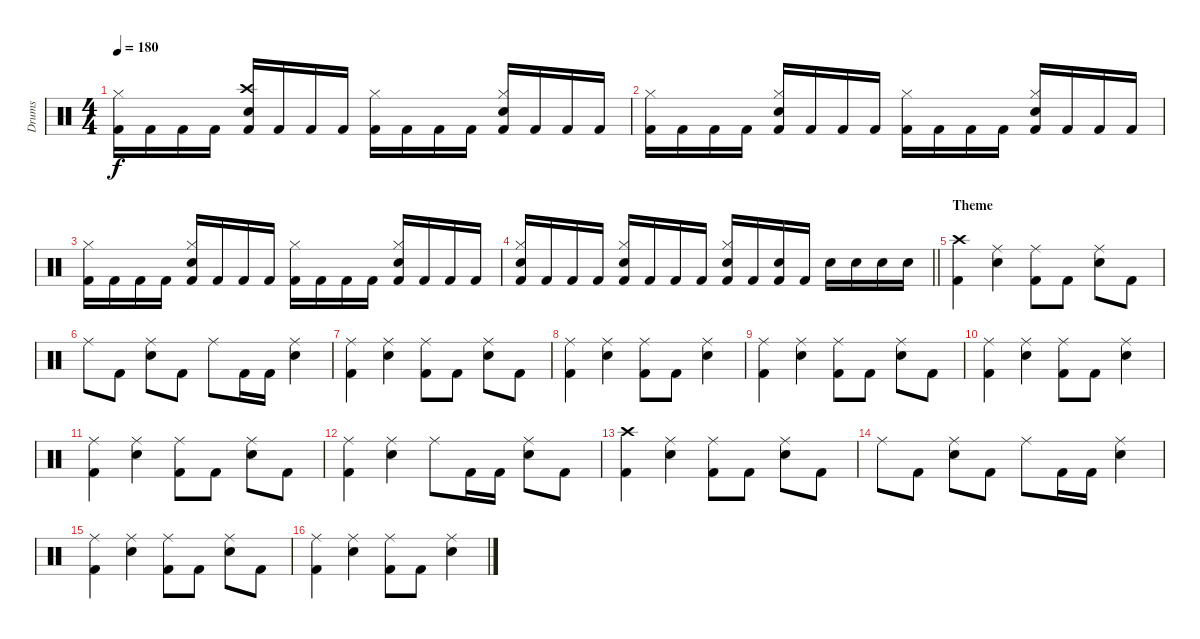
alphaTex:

\track ("Drums " "Drums ") {instrument percussion}
\staff {score}
\articulation defaults
\ts (4 4)
\tempo 180
\clef neutral
\ks c
("Kick (hit) 2" "Hi-Hat (closed)").16{dy f} "Kick (hit) 2".16 "Kick (hit) 2".16 "Kick (hit) 2".16 ("Kick (hit) 2" "Crash high (hit)" "Electric Snare (hit)").16 "Kick (hit) 2".16 "Kick (hit) 2".16 "Kick (hit) 2".16 ("Kick (hit) 2" "Hi-Hat (closed)").16 "Kick (hit) 2".16 "Kick (hit) 2".16 "Kick (hit) 2".16 ("Kick (hit) 2" "Hi-Hat (closed)" "Electric Snare (hit)").16 "Kick (hit) 2".16 "Kick (hit) 2".16 "Kick (hit) 2".16 |
("Kick (hit) 2" "Hi-Hat (closed)").16 "Kick (hit) 2".16 "Kick (hit) 2".16 "Kick (hit) 2".16 ("Kick (hit) 2" "Hi-Hat (closed)" "Electric Snare (hit)").16 "Kick (hit) 2".16 "Kick (hit) 2".16 "Kick (hit) 2".16 ("Kick (hit) 2" "Hi-Hat (closed)").16 "Kick (hit) 2".16 "Kick (hit) 2".16 "Kick (hit) 2".16 ("Kick (hit) 2" "Hi-Hat (closed)" "Electric Snare (hit)").16 "Kick (hit) 2".16 "Kick (hit) 2".16 "Kick (hit) 2".16 |
("Kick (hit) 2" "Hi-Hat (closed)").16 "Kick (hit) 2".16 "Kick (hit) 2".16 "Kick (hit) 2".16 ("Kick (hit) 2" "Hi-Hat (closed)" "Electric Snare (hit)").16 "Kick (hit) 2".16 "Kick (hit) 2".16 "Kick (hit) 2".16 ("Kick (hit) 2" "Hi-Hat (closed)").16 "Kick (hit) 2".16 "Kick (hit) 2".16 "Kick (hit) 2".16 ("Kick (hit) 2" "Hi-Hat (closed)" "Electric Snare (hit)").16 "Kick (hit) 2".16 "Kick (hit) 2".16 "Kick (hit) 2".16 |
\barLineRight lightlight
("Kick (hit) 2" "Hi-Hat (closed)" "Electric Snare (hit)").16 "Kick (hit) 2".16 "Kick (hit) 2".16 "Kick (hit) 2".16 ("Kick (hit) 2" "Hi-Hat (closed)" "Electric Snare (hit)").16 "Kick (hit) 2".16 "Kick (hit) 2".16 "Kick (hit) 2".16 ("Kick (hit) 2" "Hi-Hat (closed)" "Electric Snare (hit)").16 "Kick (hit) 2".16 ("Kick (hit) 2" "Electric Snare (hit)").16 "Kick (hit) 2".16 "Electric Snare (hit)".16 "Electric Snare (hit)".16 "Electric Snare (hit)".16 "Electric Snare (hit)".16 |
\section ("" "Theme")
("Kick (hit) 2" "Crash high (hit)").4 ("Ride (middle)" "Electric Snare (hit)").4 ("Kick (hit) 2" "Ride (middle)").8 "Kick (hit) 2".8 ("Ride (middle)" "Electric Snare (hit)").8 "Kick (hit) 2".8 |
"Ride (middle)".8 "Kick (hit) 2".8 ("Ride (middle)" "Electric Snare (hit)").8 "Kick (hit) 2".8 "Ride (middle)".8 "Kick (hit) 2".16 "Kick (hit) 2".16 ("Ride (middle)" "Electric Snare (hit)").4 |
("Kick (hit) 2" "Ride (middle)").4 ("Ride (middle)" "Electric Snare (hit)").4 ("Kick (hit) 2" "Ride (middle)").8 "Kick (hit) 2".8 ("Ride (middle)" "Electric Snare (hit)").8 "Kick (hit) 2".8 |
("Kick (hit) 2" "Ride (middle)").4 ("Ride (middle)" "Electric Snare (hit)").4 ("Kick (hit) 2" "Ride (middle)").8 "Kick (hit) 2".8 ("Ride (middle)" "Electric Snare (hit)").4 |
("Kick (hit) 2" "Ride (middle)").4 ("Ride (middle)" "Electric Snare (hit)").4 ("Kick (hit) 2" "Ride (middle)").8 "Kick (hit) 2".8 ("Ride (middle)" "Electric Snare (hit)").8 "Kick (hit) 2".8 |
("Kick (hit) 2" "Ride (middle)").4 ("Ride (middle)" "Electric Snare (hit)").4 ("Kick (hit) 2" "Ride (middle)").8 "Kick (hit) 2".8 ("Ride (middle)" "Electric Snare (hit)").4 |
("Kick (hit) 2" "Ride (middle)").4 ("Ride (middle)" "Electric Snare (hit)").4 ("Kick (hit) 2" "Ride (middle)").8 "Kick (hit) 2".8 ("Ride (middle)" "Electric Snare (hit)").8 "Kick (hit) 2".8 |
("Kick (hit) 2" "Ride (middle)").4 ("Ride (middle)" "Electric Snare (hit)").4 "Ride (middle)".8 "Kick (hit) 2".16 "Kick (hit) 2".16 ("Ride (middle)" "Electric Snare (hit)").8 "Kick (hit) 2".8 |
("Kick (hit) 2" "Crash high (hit)").4 ("Ride (middle)" "Electric Snare (hit)").4 ("Kick (hit) 2" "Ride (middle)").8 "Kick (hit) 2".8 ("Ride (middle)" "Electric Snare (hit)").8 "Kick (hit) 2".8 |
"Ride (middle)".8 "Kick (hit) 2".8 ("Ride (middle)" "Electric Snare (hit)").8 "Kick (hit) 2".8 "Ride (middle)".8 "Kick (hit) 2".16 "Kick (hit) 2".16 ("Ride (middle)" "Electric Snare (hit)").4 |
("Kick (hit) 2" "Ride (middle)").4 ("Ride (middle)" "Electric Snare (hit)").4 ("Kick (hit) 2" "Ride (middle)").8 "Kick (hit) 2".8 ("Ride (middle)" "Electric Snare (hit)").8 "Kick (hit) 2".8 |
("Kick (hit) 2" "Ride (middle)").4 ("Ride (middle)" "Electric Snare (hit)").4 ("Kick (hit) 2" "Ride (middle)").8 "Kick (hit) 2".8 ("Ride (middle)" "Electric Snare (hit)").4
